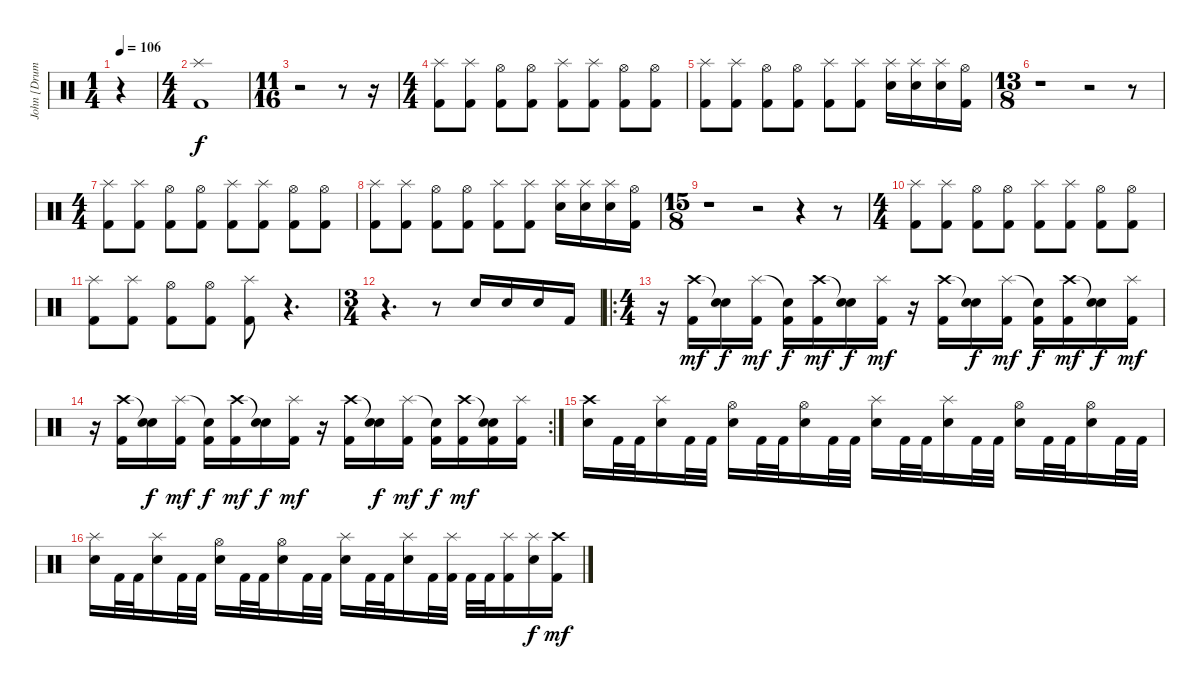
\track ("John [Drums]" "John [Drum") {instrument percussion}
\staff {score}
\articulation defaults
\ts (1 4)
\tempo 106
\clef neutral
\ks c
r.4{dy f} |
\ts (4 4)
("Splash (hit)" "Kick (hit) 2").1 |
\ts (11 16)
r.2 r.8 r.16 |
\ts (4 4)
("Splash (hit)" "Kick (hit) 2").8 ("Splash (hit)" "Kick (hit) 2").8 ("Hi-Hat (open)" "Kick (hit) 2").8 ("Hi-Hat (open)" "Kick (hit) 2").8 ("Splash (hit)" "Kick (hit) 2").8 ("Splash (hit)" "Kick (hit) 2").8 ("Hi-Hat (open)" "Kick (hit) 2").8 ("Hi-Hat (open)" "Kick (hit) 2").8 |
("Splash (hit)" "Kick (hit) 2").8 ("Splash (hit)" "Kick (hit) 2").8 ("Hi-Hat (open)" "Kick (hit) 2").8 ("Hi-Hat (open)" "Kick (hit) 2").8 ("Splash (hit)" "Kick (hit) 2").8 ("Splash (hit)" "Kick (hit) 2").8 ("Splash (hit)" "Electric Snare (hit)").16 ("Splash (hit)" "Electric Snare (hit)").16 ("Splash (hit)" "Electric Snare (hit)").16 ("Hi-Hat (open)" "Kick (hit) 2").16 |
\ts (13 8)
r.1 r.2 r.8 |
\ts (4 4)
("Splash (hit)" "Kick (hit) 2").8 ("Splash (hit)" "Kick (hit) 2").8 ("Hi-Hat (open)" "Kick (hit) 2").8 ("Hi-Hat (open)" "Kick (hit) 2").8 ("Splash (hit)" "Kick (hit) 2").8 ("Splash (hit)" "Kick (hit) 2").8 ("Hi-Hat (open)" "Kick (hit) 2").8 ("Hi-Hat (open)" "Kick (hit) 2").8 |
("Splash (hit)" "Kick (hit) 2").8 ("Splash (hit)" "Kick (hit) 2").8 ("Hi-Hat (open)" "Kick (hit) 2").8 ("Hi-Hat (open)" "Kick (hit) 2").8 ("Splash (hit)" "Kick (hit) 2").8 ("Splash (hit)" "Kick (hit) 2").8 ("Splash (hit)" "Electric Snare (hit)").16 ("Splash (hit)" "Electric Snare (hit)").16 ("Splash (hit)" "Electric Snare (hit)").16 ("Hi-Hat (open)" "Kick (hit) 2").16 |
\ts (15 8)
r.1 r.2 r.4 r.8 |
\ts (4 4)
("Splash (hit)" "Kick (hit) 2").8 ("Splash (hit)" "Kick (hit) 2").8 ("Hi-Hat (open)" "Kick (hit) 2").8 ("Hi-Hat (open)" "Kick (hit) 2").8 ("Splash (hit)" "Kick (hit) 2").8 ("Splash (hit)" "Kick (hit) 2").8 ("Hi-Hat (open)" "Kick (hit) 2").8 ("Hi-Hat (open)" "Kick (hit) 2").8 |
("Splash (hit)" "Kick (hit) 2").8 ("Splash (hit)" "Kick (hit) 2").8 ("Hi-Hat (open)" "Kick (hit) 2").8 ("Hi-Hat (open)" "Kick (hit) 2").8 ("Splash (hit)" "Kick (hit) 2").8 r.4{d} |
\ts (3 4)
r.4{d} r.8 "Electric Snare (hit)".16 "Electric Snare (hit)".16 "Electric Snare (hit)".16 "Kick (hit) 2".16 |
\ro
\ts (4 4)
r.16 ("Crash high (hit)" "Kick (hit) 2").16{dy mf} ("Snare (hit)"{t} "Electric Snare (hit)").16{dy f} ("Splash (hit)" "Kick (hit) 2").16{dy mf} ("Snare (hit)"{t} "Kick (hit) 2").16{dy f} ("Crash high (hit)" "Kick (hit) 2").16{dy mf} ("Snare (hit)"{t} "Electric Snare (hit)").16{dy f} ("Splash (hit)" "Kick (hit) 2").16{dy mf} r.16 ("Crash high (hit)" "Kick (hit) 2").16 ("Snare (hit)"{t} "Electric Snare (hit)").16{dy f} ("Splash (hit)" "Kick (hit) 2").16{dy mf} ("Snare (hit)"{t} "Kick (hit) 2").16{dy f} ("Crash high (hit)" "Kick (hit) 2").16{dy mf} ("Snare (hit)"{t} "Electric Snare (hit)").16{dy f} ("Splash (hit)" "Kick (hit) 2").16{dy mf} |
\rc 2
r.16 ("Crash high (hit)" "Kick (hit) 2").16 ("Snare (hit)"{t} "Electric Snare (hit)").16{dy f} ("Splash (hit)" "Kick (hit) 2").16{dy mf} ("Snare (hit)"{t} "Kick (hit) 2").16{dy f} ("Crash high (hit)" "Kick (hit) 2").16{dy mf} ("Snare (hit)"{t} "Electric Snare (hit)").16{dy f} ("Splash (hit)" "Kick (hit) 2").16{dy mf} r.16 ("Crash high (hit)" "Kick (hit) 2").16 ("Snare (hit)"{t} "Electric Snare (hit)").16{dy f} ("Splash (hit)" "Kick (hit) 2").16{dy mf} ("Snare (hit)"{t} "Kick (hit) 2").16{dy f} ("Crash high (hit)" "Kick (hit) 2").16{dy mf} ("Snare (hit)"{t} "Electric Snare (hit)" "Kick (hit) 2").16 ("Splash (hit)" "Kick (hit) 2").16 |
("Crash high (hit)" "Electric Snare (hit)").16 "Kick (hit) 2".32 "Kick (hit) 2".32 ("Splash (hit)" "Electric Snare (hit)").16 "Kick (hit) 2".32 "Kick (hit) 2".32 ("Hi-Hat (open)" "Electric Snare (hit)").16 "Kick (hit) 2".32 "Kick (hit) 2".32 ("Hi-Hat (open)" "Electric Snare (hit)").16 "Kick (hit) 2".32 "Kick (hit) 2".32 ("Splash (hit)" "Electric Snare (hit)").16 "Kick (hit) 2".32 "Kick (hit) 2".32 ("Splash (hit)" "Electric Snare (hit)").16 "Kick (hit) 2".32 "Kick (hit) 2".32 ("Hi-Hat (open)" "Electric Snare (hit)").16 "Kick (hit) 2".32 "Kick (hit) 2".32 ("Hi-Hat (open)" "Electric Snare (hit)").16 "Kick (hit) 2".32 "Kick (hit) 2".32 |
("Splash (hit)" "Electric Snare (hit)").16 "Kick (hit) 2".32 "Kick (hit) 2".32 ("Splash (hit)" "Electric Snare (hit)").16 "Kick (hit) 2".32 "Kick (hit) 2".32 ("Hi-Hat (open)" "Electric Snare (hit)").16 "Kick (hit) 2".32 "Kick (hit) 2".32 ("Hi-Hat (open)" "Electric Snare (hit)").16 "Kick (hit) 2".32 "Kick (hit) 2".32 ("Splash (hit)" "Electric Snare (hit)").16 "Kick (hit) 2".32 "Kick (hit) 2".32 ("Splash (hit)" "Electric Snare (hit)").16 "Kick (hit) 2".32 ("Splash (hit)" "Kick (hit) 2").32 "Kick (hit) 2".32 "Kick (hit) 2".32 ("Splash (hit)" "Kick (hit) 2").16 ("Splash (hit)" "Electric Snare (hit)").16{dy f} ("Crash high (hit)" "Kick (hit) 2").16{dy mf}
